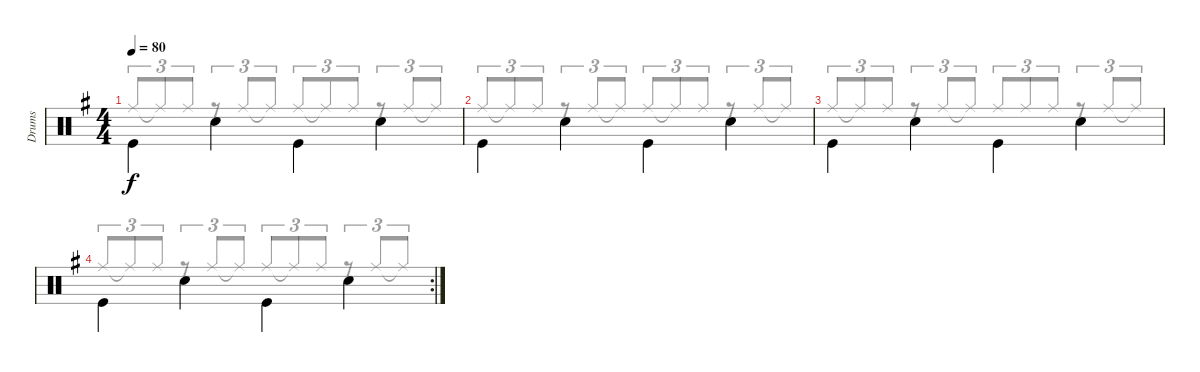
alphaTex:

\track ("Drums" "Drums") {instrument percussion}
\staff {score}
\articulation defaults
\voice
\ts (4 4)
\tempo 80
\clef neutral
\ks g "Kick (hit)".4{dy f beam Down} "Snare (hit) 2".4{beam Down} "Kick (hit)".4{beam Down} "Snare (hit) 2".4{beam Down}
|
"Kick (hit)".4{beam Down} "Snare (hit) 2".4{beam Down} "Kick (hit)".4{beam Down} "Snare (hit) 2".4{beam Down} |
"Kick (hit)".4{beam Down} "Snare (hit) 2".4{beam Down} "Kick (hit)".4{beam Down} "Snare (hit) 2".4{beam Down} |
\rc 2 "Kick (hit)".4{beam Down} "Snare (hit) 2".4{beam Down} "Kick (hit)".4{beam Down} "Snare (hit) 2".4{beam Down}
\voice
\clef neutral
\ottava regular
\simile none
\ks g "Ride (middle)".8{tu (3 2) dy f beam Up} "Ride (middle)"{t}.8{tu (3 2) beam Up} "Ride (middle)".8{tu (3 2) beam Up}
r.8{tu (3 2) beam Up} "Ride (middle)".8{tu (3 2) beam Up} "Ride (middle)"{t}.8{tu (3 2) beam Up} "Ride (middle)".8{tu (3 2) beam Up} "Ride (middle)"{t}.8{tu (3 2) beam Up} "Ride (middle)".8{tu (3 2) beam Up} r.8{tu (3 2) beam Up} "Ride (middle)".8{tu (3 2) beam Up} "Ride (middle)"{t}.8{tu (3 2) beam Up} |
"Ride (middle)".8{tu (3 2) beam Up} "Ride (middle)"{t}.8{tu (3 2) beam Up} "Ride (middle)".8{tu (3 2) beam Up} r.8{tu (3 2) beam Up} "Ride (middle)".8{tu (3 2) beam Up} "Ride (middle)"{t}.8{tu (3 2) beam Up} "Ride (middle)".8{tu (3 2) beam Up} "Ride (middle)"{t}.8{tu (3 2) beam Up} "Ride (middle)".8{tu (3 2) beam Up} r.8{tu (3 2) beam Up} "Ride (middle)".8{tu (3 2) beam Up} "Ride (middle)"{t}.8{tu (3 2) beam Up} |
"Ride (middle)".8{tu (3 2) beam Up} "Ride (middle)"{t}.8{tu (3 2) beam Up} "Ride (middle)".8{tu (3 2) beam Up} r.8{tu (3 2) beam Up} "Ride (middle)".8{tu (3 2) beam Up} "Ride (middle)"{t}.8{tu (3 2) beam Up} "Ride (middle)".8{tu (3 2) beam Up} "Ride (middle)".8{tu (3 2) beam Up} "Ride (middle)".8{tu (3 2) beam Up} r.8{tu (3 2) beam Up} "Ride (middle)".8{tu (3 2) beam Up} "Ride (middle)"{t}.8{tu (3 2) beam Up} |
"Ride (middle)".8{tu (3 2) beam Up} "Ride (middle)"{t}.8{tu (3 2) beam Up} "Ride (middle)".8{tu (3 2) beam Up} r.8{tu (3 2) beam Up} "Ride (middle)".8{tu (3 2) beam Up} "Ride (middle)"{t}.8{tu (3 2) beam Up} "Ride (middle)".8{tu (3 2) beam Up} "Ride (middle)"{t}.8{tu (3 2) beam Up} "Ride (middle)".8{tu (3 2) beam Up} r.8{tu (3 2) beam Up} "Ride (middle)".8{tu (3 2) beam Up} "Ride (middle)"{t}.8{tu (3 2) beam Up}
